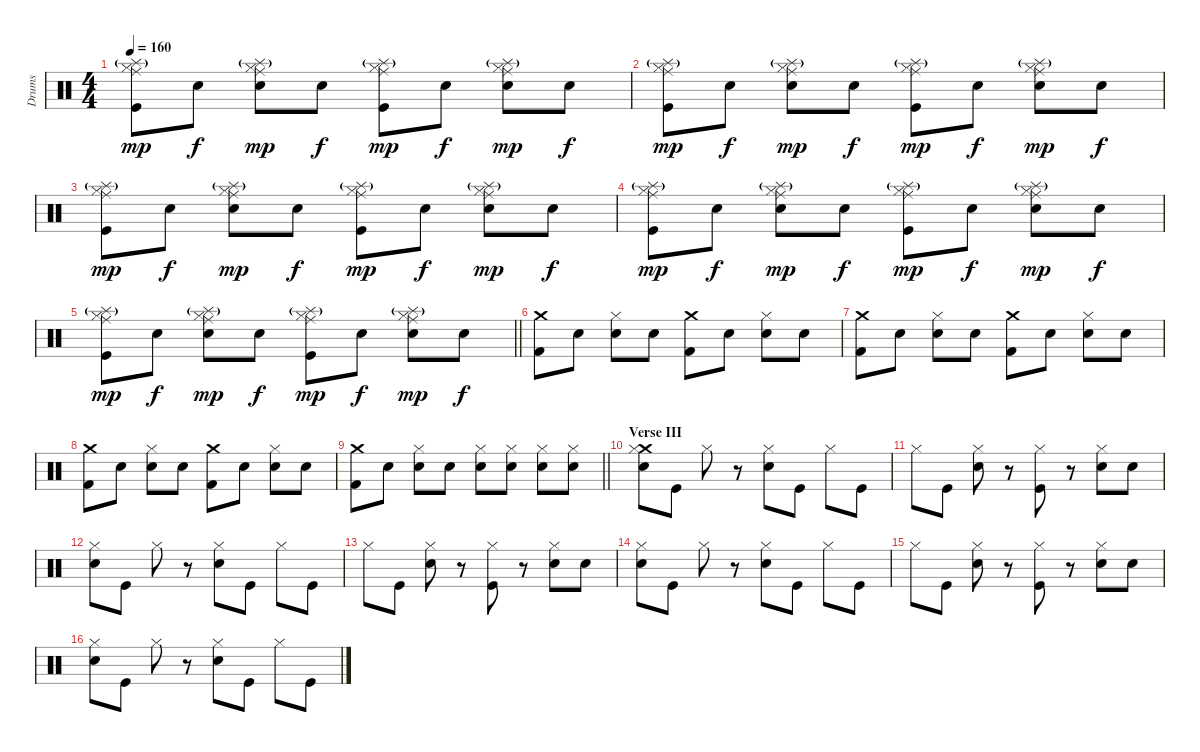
\track ("Drums" "Drums") {instrument percussion}
\staff {score}
\articulation defaults
\ts (4 4)
\tempo 160
\clef neutral
\ks c
("Splash (hit)"{g} "Ride (middle)" "Hi-Hat (closed)" "Kick (hit)").8{dy mp} "Snare (hit)".8{dy f} ("Splash (hit)"{g} "Ride (middle)" "Hi-Hat (closed)" "Electric Snare (hit)").8{dy mp} "Snare (hit)".8{dy f} ("Splash (hit)"{g} "Ride (middle)" "Hi-Hat (closed)" "Kick (hit)").8{dy mp} "Snare (hit)".8{dy f} ("Splash (hit)"{g} "Ride (middle)" "Hi-Hat (closed)" "Electric Snare (hit)").8{dy mp} "Snare (hit)".8{dy f} |
("Splash (hit)"{g} "Ride (middle)" "Hi-Hat (closed)" "Kick (hit)").8{dy mp} "Snare (hit)".8{dy f} ("Splash (hit)"{g} "Ride (middle)" "Hi-Hat (closed)" "Electric Snare (hit)").8{dy mp} "Snare (hit)".8{dy f} ("Splash (hit)"{g} "Ride (middle)" "Hi-Hat (closed)" "Kick (hit)").8{dy mp} "Snare (hit)".8{dy f} ("Splash (hit)"{g} "Ride (middle)" "Hi-Hat (closed)" "Electric Snare (hit)").8{dy mp} "Snare (hit)".8{dy f} |
("Splash (hit)"{g} "Ride (middle)" "Hi-Hat (closed)" "Kick (hit)").8{dy mp} "Snare (hit)".8{dy f} ("Splash (hit)"{g} "Ride (middle)" "Hi-Hat (closed)" "Electric Snare (hit)").8{dy mp} "Snare (hit)".8{dy f} ("Splash (hit)"{g} "Ride (middle)" "Hi-Hat (closed)" "Kick (hit)").8{dy mp} "Snare (hit)".8{dy f} ("Splash (hit)"{g} "Ride (middle)" "Hi-Hat (closed)" "Electric Snare (hit)").8{dy mp} "Snare (hit)".8{dy f} |
("Splash (hit)"{g} "Ride (middle)" "Hi-Hat (closed)" "Kick (hit)").8{dy mp} "Snare (hit)".8{dy f} ("Splash (hit)"{g} "Ride (middle)" "Hi-Hat (closed)" "Electric Snare (hit)").8{dy mp} "Snare (hit)".8{dy f} ("Splash (hit)"{g} "Ride (middle)" "Hi-Hat (closed)" "Kick (hit)").8{dy mp} "Snare (hit)".8{dy f} ("Splash (hit)"{g} "Ride (middle)" "Hi-Hat (closed)" "Electric Snare (hit)").8{dy mp} "Snare (hit)".8{dy f} |
\barLineRight lightlight
("Splash (hit)"{g} "Ride (middle)" "Hi-Hat (closed)" "Kick (hit)").8{dy mp} "Snare (hit)".8{dy f} ("Splash (hit)"{g} "Ride (middle)" "Hi-Hat (closed)" "Electric Snare (hit)").8{dy mp} "Snare (hit)".8{dy f} ("Splash (hit)"{g} "Ride (middle)" "Hi-Hat (closed)" "Kick (hit)").8{dy mp} "Snare (hit)".8{dy f} ("Splash (hit)"{g} "Ride (middle)" "Hi-Hat (closed)" "Electric Snare (hit)").8{dy mp} "Snare (hit)".8{dy f} |
\section ("" "")
("Crash medium (hit)" "Kick (hit) 2").8 "Snare (hit)".8 ("Hi-Hat (closed)" "Electric Snare (hit)").8 "Snare (hit)".8 ("Crash medium (hit)" "Kick (hit) 2").8 "Snare (hit)".8 ("Hi-Hat (closed)" "Electric Snare (hit)").8 "Snare (hit)".8 |
("Crash medium (hit)" "Kick (hit) 2").8 "Snare (hit)".8 ("Hi-Hat (closed)" "Electric Snare (hit)").8 "Snare (hit)".8 ("Crash medium (hit)" "Kick (hit) 2").8 "Snare (hit)".8 ("Hi-Hat (closed)" "Electric Snare (hit)").8 "Snare (hit)".8 |
("Crash medium (hit)" "Kick (hit) 2").8 "Snare (hit)".8 ("Hi-Hat (closed)" "Electric Snare (hit)").8 "Snare (hit)".8 ("Crash medium (hit)" "Kick (hit) 2").8 "Snare (hit)".8 ("Hi-Hat (closed)" "Electric Snare (hit)").8 "Snare (hit)".8 |
\barLineRight lightlight
("Crash medium (hit)" "Kick (hit) 2").8 "Snare (hit)".8 ("Hi-Hat (closed)" "Electric Snare (hit)").8 "Snare (hit)".8 ("Hi-Hat (closed)" "Electric Snare (hit)").8 ("Hi-Hat (closed)" "Electric Snare (hit)").8 ("Hi-Hat (closed)" "Electric Snare (hit)").8 ("Hi-Hat (closed)" "Electric Snare (hit)").8 |
\section ("" "Verse III")
("Crash medium (hit)" "Hi-Hat (closed)" "Electric Snare (hit)").8 "Kick (hit)".8 "Hi-Hat (closed)".8 r.8 ("Hi-Hat (closed)" "Electric Snare (hit)").8 "Kick (hit)".8 "Hi-Hat (closed)".8 "Kick (hit)".8 |
"Hi-Hat (closed)".8 "Kick (hit)".8 ("Hi-Hat (closed)" "Electric Snare (hit)").8 r.8 ("Hi-Hat (closed)" "Kick (hit)").8 r.8 ("Hi-Hat (closed)" "Electric Snare (hit)").8 "Snare (hit)".8 |
("Hi-Hat (closed)" "Electric Snare (hit)").8 "Kick (hit)".8 "Hi-Hat (closed)".8 r.8 ("Hi-Hat (closed)" "Electric Snare (hit)").8 "Kick (hit)".8 "Hi-Hat (closed)".8 "Kick (hit)".8 |
"Hi-Hat (closed)".8 "Kick (hit)".8 ("Hi-Hat (closed)" "Electric Snare (hit)").8 r.8 ("Hi-Hat (closed)" "Kick (hit)").8 r.8 ("Hi-Hat (closed)" "Electric Snare (hit)").8 "Snare (hit)".8 |
("Hi-Hat (closed)" "Electric Snare (hit)").8 "Kick (hit)".8 "Hi-Hat (closed)".8 r.8 ("Hi-Hat (closed)" "Electric Snare (hit)").8 "Kick (hit)".8 "Hi-Hat (closed)".8 "Kick (hit)".8 |
"Hi-Hat (closed)".8 "Kick (hit)".8 ("Hi-Hat (closed)" "Electric Snare (hit)").8 r.8 ("Hi-Hat (closed)" "Kick (hit)").8 r.8 ("Hi-Hat (closed)" "Electric Snare (hit)").8 "Snare (hit)".8 |
("Hi-Hat (closed)" "Electric Snare (hit)").8 "Kick (hit)".8 "Hi-Hat (closed)".8 r.8 ("Hi-Hat (closed)" "Electric Snare (hit)").8 "Kick (hit)".8 "Hi-Hat (closed)".8 "Kick (hit)".8
